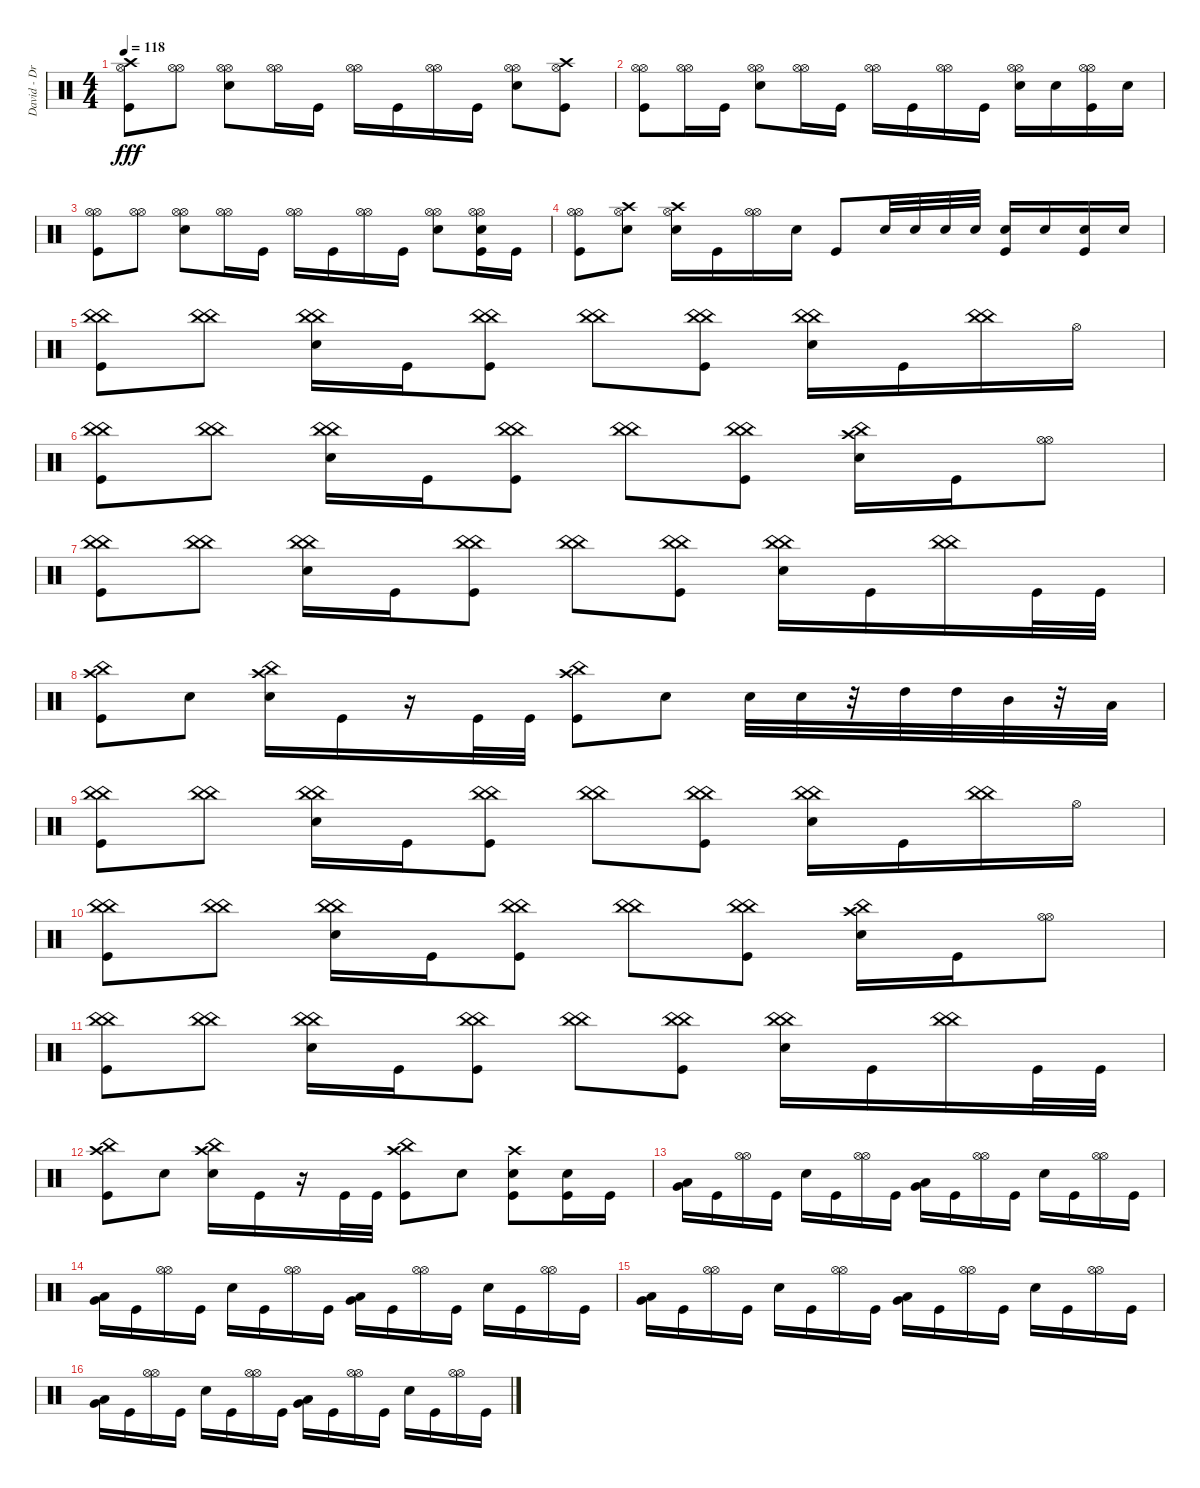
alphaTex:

\track ("David - Drums" "David - Dr") {instrument percussion}
\staff {score}
\articulation defaults
\ts (4 4)
\tempo 118
\clef neutral
\ks c
("Hi-Hat (open)" "Crash high (hit)" "Kick (hit)").8{dy fff} ("Hi-Hat (open)" "Hi-Hat (open)").8 ("Hi-Hat (open)" "Hi-Hat (open)" "Snare (hit) 2").8 ("Hi-Hat (open)" "Hi-Hat (open)").16 "Kick (hit)".16 ("Hi-Hat (open)" "Hi-Hat (open)").16 "Kick (hit)".16 ("Hi-Hat (open)" "Hi-Hat (open)").16 "Kick (hit)".16 ("Hi-Hat (open)" "Hi-Hat (open)" "Snare (hit) 2").8 ("Hi-Hat (open)" "Crash high (hit)" "Kick (hit)").8 |
("Hi-Hat (open)" "Hi-Hat (open)" "Kick (hit)").8 ("Hi-Hat (open)" "Hi-Hat (open)").16 "Kick (hit)".16 ("Hi-Hat (open)" "Hi-Hat (open)" "Snare (hit) 2").8 ("Hi-Hat (open)" "Hi-Hat (open)").16 "Kick (hit)".16 ("Hi-Hat (open)" "Hi-Hat (open)").16 "Kick (hit)".16 ("Hi-Hat (open)" "Hi-Hat (open)").16 "Kick (hit)".16 ("Hi-Hat (open)" "Hi-Hat (open)" "Snare (hit) 2").16 "Snare (hit) 2".16 ("Hi-Hat (open)" "Hi-Hat (open)" "Kick (hit)").16 "Snare (hit) 2".16 |
("Hi-Hat (open)" "Hi-Hat (open)" "Kick (hit)").8 ("Hi-Hat (open)" "Hi-Hat (open)").8 ("Hi-Hat (open)" "Hi-Hat (open)" "Snare (hit) 2").8 ("Hi-Hat (open)" "Hi-Hat (open)").16 "Kick (hit)".16 ("Hi-Hat (open)" "Hi-Hat (open)").16 "Kick (hit)".16 ("Hi-Hat (open)" "Hi-Hat (open)").16 "Kick (hit)".16 ("Hi-Hat (open)" "Hi-Hat (open)" "Snare (hit) 2").8 ("Hi-Hat (open)" "Hi-Hat (open)" "Snare (hit) 2" "Kick (hit)").16 "Kick (hit)".16 |
("Hi-Hat (open)" "Hi-Hat (open)" "Kick (hit)").8 ("Hi-Hat (open)" "Crash high (hit)" "Snare (hit) 2").8 ("Hi-Hat (open)" "Crash high (hit)" "Snare (hit) 2").16 "Kick (hit)".16 ("Hi-Hat (open)" "Hi-Hat (open)").16 "Snare (hit) 2".16 "Kick (hit)".8 "Snare (hit) 2".32 "Snare (hit) 2".32 "Snare (hit) 2".32 "Snare (hit) 2".32 ("Snare (hit) 2" "Kick (hit)").16 "Snare (hit) 2".16 ("Snare (hit) 2" "Kick (hit)").16 "Snare (hit) 2".16 |
("China (hit)" "China (hit)" "Kick (hit)").8 ("China (hit)" "China (hit)").8 ("China (hit)" "China (hit)" "Snare (hit) 2").16 "Kick (hit)".16 ("China (hit)" "China (hit)" "Kick (hit)").8 ("China (hit)" "China (hit)").8 ("China (hit)" "China (hit)" "Kick (hit)").8 ("China (hit)" "China (hit)" "Snare (hit) 2").16 "Kick (hit)".16 ("China (hit)" "China (hit)").16 "Hi-Hat (open)".16 |
("China (hit)" "China (hit)" "Kick (hit)").8 ("China (hit)" "China (hit)").8 ("China (hit)" "China (hit)" "Snare (hit) 2").16 "Kick (hit)".16 ("China (hit)" "China (hit)" "Kick (hit)").8 ("China (hit)" "China (hit)").8 ("China (hit)" "China (hit)" "Kick (hit)").8 ("Crash high (hit)" "China (hit)" "Snare (hit) 2").16 "Kick (hit)".16 ("Hi-Hat (open)" "Hi-Hat (open)").8 |
("China (hit)" "China (hit)" "Kick (hit)").8 ("China (hit)" "China (hit)").8 ("China (hit)" "China (hit)" "Snare (hit) 2").16 "Kick (hit)".16 ("China (hit)" "China (hit)" "Kick (hit)").8 ("China (hit)" "China (hit)").8 ("China (hit)" "China (hit)" "Kick (hit)").8 ("China (hit)" "China (hit)" "Snare (hit) 2").16 "Kick (hit)".16 ("China (hit)" "China (hit)").16 "Kick (hit)".32 "Kick (hit)".32 |
("Crash high (hit)" "China (hit)" "Kick (hit)").8 "Snare (hit) 2".8 ("China (hit)" "Crash high (hit)" "Snare (hit) 2").16 "Kick (hit)".16 r.16 "Kick (hit)".32 "Kick (hit)".32 ("Crash high (hit)" "China (hit)" "Kick (hit)").8 "Snare (hit) 2".8 "Snare (hit) 2".32 "Snare (hit) 2".32 r.32 "High Tom (hit)".32 "High Tom (hit)".32 "Mid Tom (hit)".32 r.32 "Low Tom (hit)".32 |
("China (hit)" "China (hit)" "Kick (hit)").8 ("China (hit)" "China (hit)").8 ("China (hit)" "China (hit)" "Snare (hit) 2").16 "Kick (hit)".16 ("China (hit)" "China (hit)" "Kick (hit)").8 ("China (hit)" "China (hit)").8 ("China (hit)" "China (hit)" "Kick (hit)").8 ("China (hit)" "China (hit)" "Snare (hit) 2").16 "Kick (hit)".16 ("China (hit)" "China (hit)").16 "Hi-Hat (open)".16 |
("China (hit)" "China (hit)" "Kick (hit)").8 ("China (hit)" "China (hit)").8 ("China (hit)" "China (hit)" "Snare (hit) 2").16 "Kick (hit)".16 ("China (hit)" "China (hit)" "Kick (hit)").8 ("China (hit)" "China (hit)").8 ("China (hit)" "China (hit)" "Kick (hit)").8 ("Crash high (hit)" "China (hit)" "Snare (hit) 2").16 "Kick (hit)".16 ("Hi-Hat (open)" "Hi-Hat (open)").8 |
("China (hit)" "China (hit)" "Kick (hit)").8 ("China (hit)" "China (hit)").8 ("China (hit)" "China (hit)" "Snare (hit) 2").16 "Kick (hit)".16 ("China (hit)" "China (hit)" "Kick (hit)").8 ("China (hit)" "China (hit)").8 ("China (hit)" "China (hit)" "Kick (hit)").8 ("China (hit)" "China (hit)" "Snare (hit) 2").16 "Kick (hit)".16 ("China (hit)" "China (hit)").16 "Kick (hit)".32 "Kick (hit)".32 |
("Crash high (hit)" "China (hit)" "Kick (hit)").8 "Snare (hit) 2".8 ("Crash high (hit)" "China (hit)" "Snare (hit) 2").16 "Kick (hit)".16 r.16 "Kick (hit)".32 "Kick (hit)".32 ("Crash high (hit)" "China (hit)" "Kick (hit)").8 "Snare (hit) 2".8 ("Crash high (hit)" "Snare (hit) 2" "Kick (hit)").8 ("Snare (hit) 2" "Kick (hit)").16 "Kick (hit)".16 |
("Low Floor Tom (hit)" "Very Low Tom (hit)").16 "Kick (hit)".16 ("Hi-Hat (open)" "Hi-Hat (open)").16 "Kick (hit)".16 "Snare (hit) 2".16 "Kick (hit)".16 ("Hi-Hat (open)" "Hi-Hat (open)").16 "Kick (hit)".16 ("Low Floor Tom (hit)" "Very Low Tom (hit)").16 "Kick (hit)".16 ("Hi-Hat (open)" "Hi-Hat (open)").16 "Kick (hit)".16 "Snare (hit) 2".16 "Kick (hit)".16 ("Hi-Hat (open)" "Hi-Hat (open)").16 "Kick (hit)".16 |
("Low Floor Tom (hit)" "Very Low Tom (hit)").16 "Kick (hit)".16 ("Hi-Hat (open)" "Hi-Hat (open)").16 "Kick (hit)".16 "Snare (hit) 2".16 "Kick (hit)".16 ("Hi-Hat (open)" "Hi-Hat (open)").16 "Kick (hit)".16 ("Low Floor Tom (hit)" "Very Low Tom (hit)").16 "Kick (hit)".16 ("Hi-Hat (open)" "Hi-Hat (open)").16 "Kick (hit)".16 "Snare (hit) 2".16 "Kick (hit)".16 ("Hi-Hat (open)" "Hi-Hat (open)").16 "Kick (hit)".16 |
("Low Floor Tom (hit)" "Very Low Tom (hit)").16 "Kick (hit)".16 ("Hi-Hat (open)" "Hi-Hat (open)").16 "Kick (hit)".16 "Snare (hit) 2".16 "Kick (hit)".16 ("Hi-Hat (open)" "Hi-Hat (open)").16 "Kick (hit)".16 ("Low Floor Tom (hit)" "Very Low Tom (hit)").16 "Kick (hit)".16 ("Hi-Hat (open)" "Hi-Hat (open)").16 "Kick (hit)".16 "Snare (hit) 2".16 "Kick (hit)".16 ("Hi-Hat (open)" "Hi-Hat (open)").16 "Kick (hit)".16 |
("Low Floor Tom (hit)" "Very Low Tom (hit)").16 "Kick (hit)".16 ("Hi-Hat (open)" "Hi-Hat (open)").16 "Kick (hit)".16 "Snare (hit) 2".16 "Kick (hit)".16 ("Hi-Hat (open)" "Hi-Hat (open)").16 "Kick (hit)".16 ("Low Floor Tom (hit)" "Very Low Tom (hit)").16 "Kick (hit)".16 ("Hi-Hat (open)" "Hi-Hat (open)").16 "Kick (hit)".16 "Snare (hit) 2".16 "Kick (hit)".16 ("Hi-Hat (open)" "Hi-Hat (open)").16 "Kick (hit)".16
